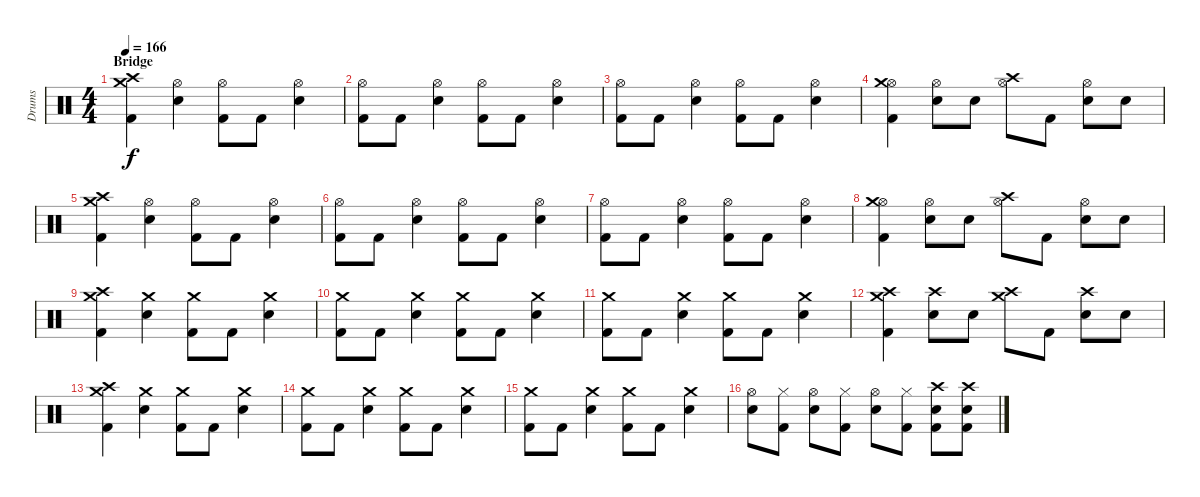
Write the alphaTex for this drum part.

\track ("Drums" "Drums") {instrument percussion}
\staff {score}
\articulation defaults
\ts (4 4)
\section ("" "Bridge")
\tempo 166
\clef neutral
\ks c
("Crash high (hit)" "Crash medium (hit)" "Kick (hit) 2").4{dy f} ("Hi-Hat (open)" "Electric Snare (hit)").4 ("Hi-Hat (open)" "Kick (hit) 2").8 "Kick (hit) 2".8 ("Hi-Hat (open)" "Electric Snare (hit)").4 |
("Hi-Hat (open)" "Kick (hit) 2").8 "Kick (hit) 2".8 ("Hi-Hat (open)" "Electric Snare (hit)").4 ("Hi-Hat (open)" "Kick (hit) 2").8 "Kick (hit) 2".8 ("Hi-Hat (open)" "Electric Snare (hit)").4 |
("Hi-Hat (open)" "Kick (hit) 2").8 "Kick (hit) 2".8 ("Hi-Hat (open)" "Electric Snare (hit)").4 ("Hi-Hat (open)" "Kick (hit) 2").8 "Kick (hit) 2".8 ("Hi-Hat (open)" "Electric Snare (hit)").4 |
("Hi-Hat (open)" "Crash medium (hit)" "Kick (hit) 2").4 ("Hi-Hat (open)" "Electric Snare (hit)").8 "Electric Snare (hit)".8 ("Hi-Hat (open)" "Crash high (hit)").8 "Kick (hit) 2".8 ("Hi-Hat (open)" "Electric Snare (hit)").8 "Electric Snare (hit)".8 |
("Crash high (hit)" "Crash medium (hit)" "Kick (hit) 2").4 ("Hi-Hat (open)" "Electric Snare (hit)").4 ("Hi-Hat (open)" "Kick (hit) 2").8 "Kick (hit) 2".8 ("Hi-Hat (open)" "Electric Snare (hit)").4 |
("Hi-Hat (open)" "Kick (hit) 2").8 "Kick (hit) 2".8 ("Hi-Hat (open)" "Electric Snare (hit)").4 ("Hi-Hat (open)" "Kick (hit) 2").8 "Kick (hit) 2".8 ("Hi-Hat (open)" "Electric Snare (hit)").4 |
("Hi-Hat (open)" "Kick (hit) 2").8 "Kick (hit) 2".8 ("Hi-Hat (open)" "Electric Snare (hit)").4 ("Hi-Hat (open)" "Kick (hit) 2").8 "Kick (hit) 2".8 ("Hi-Hat (open)" "Electric Snare (hit)").4 |
("Hi-Hat (open)" "Crash medium (hit)" "Kick (hit) 2").4 ("Hi-Hat (open)" "Electric Snare (hit)").8 "Electric Snare (hit)".8 ("Hi-Hat (open)" "Crash high (hit)").8 "Kick (hit) 2".8 ("Hi-Hat (open)" "Electric Snare (hit)").8 "Electric Snare (hit)".8 |
("Crash high (hit)" "Crash medium (hit)" "Kick (hit) 2").4 ("Crash medium (hit)" "Electric Snare (hit)").4 ("Crash medium (hit)" "Kick (hit) 2").8 "Kick (hit) 2".8 ("Crash medium (hit)" "Electric Snare (hit)").4 |
("Crash medium (hit)" "Kick (hit) 2").8 "Kick (hit) 2".8 ("Crash medium (hit)" "Electric Snare (hit)").4 ("Crash medium (hit)" "Kick (hit) 2").8 "Kick (hit) 2".8 ("Crash medium (hit)" "Electric Snare (hit)").4 |
("Crash medium (hit)" "Kick (hit) 2").8 "Kick (hit) 2".8 ("Crash medium (hit)" "Electric Snare (hit)").4 ("Crash medium (hit)" "Kick (hit) 2").8 "Kick (hit) 2".8 ("Crash medium (hit)" "Electric Snare (hit)").4 |
("Crash high (hit)" "Crash medium (hit)" "Kick (hit) 2").4 ("Crash high (hit)" "Electric Snare (hit)").8 "Electric Snare (hit)".8 ("Crash medium (hit)" "Crash high (hit)").8 "Kick (hit) 2".8 ("Crash high (hit)" "Electric Snare (hit)").8 "Electric Snare (hit)".8 |
("Crash high (hit)" "Crash medium (hit)" "Kick (hit) 2").4 ("Crash medium (hit)" "Electric Snare (hit)").4 ("Crash medium (hit)" "Kick (hit) 2").8 "Kick (hit) 2".8 ("Crash medium (hit)" "Electric Snare (hit)").4 |
("Crash medium (hit)" "Kick (hit) 2").8 "Kick (hit) 2".8 ("Crash medium (hit)" "Electric Snare (hit)").4 ("Crash medium (hit)" "Kick (hit) 2").8 "Kick (hit) 2".8 ("Crash medium (hit)" "Electric Snare (hit)").4 |
("Crash medium (hit)" "Kick (hit) 2").8 "Kick (hit) 2".8 ("Crash medium (hit)" "Electric Snare (hit)").4 ("Crash medium (hit)" "Kick (hit) 2").8 "Kick (hit) 2".8 ("Crash medium (hit)" "Electric Snare (hit)").4 |
("Hi-Hat (open)" "Electric Snare (hit)").8 ("Hi-Hat (closed)" "Kick (hit) 2").8 ("Hi-Hat (open)" "Electric Snare (hit)").8 ("Hi-Hat (closed)" "Kick (hit) 2").8 ("Hi-Hat (open)" "Electric Snare (hit)").8 ("Hi-Hat (closed)" "Kick (hit) 2").8 ("Crash high (hit)" "Electric Snare (hit)" "Kick (hit) 2").8 ("Crash high (hit)" "Electric Snare (hit)" "Kick (hit) 2").8
